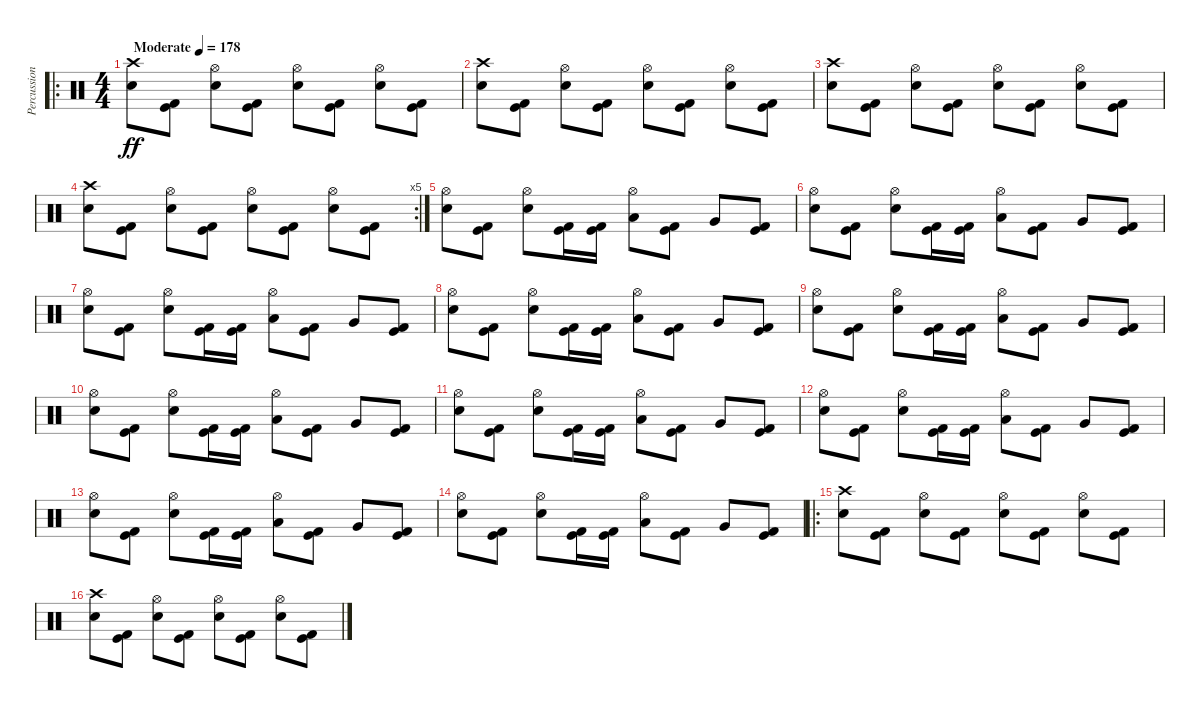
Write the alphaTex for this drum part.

\track ("Percussion" "Percussion") {instrument percussion}
\staff {score}
\articulation defaults
\ro
\ts (4 4)
\tempo (178 "Moderate")
\clef neutral
\ks c
("Electric Snare (hit)" "Crash high (hit)").8{dy ff} ("Kick (hit)" "Kick (hit) 2").8 ("Electric Snare (hit)" "Hi-Hat (open)").8 ("Kick (hit)" "Kick (hit) 2").8 ("Electric Snare (hit)" "Hi-Hat (open)").8 ("Kick (hit)" "Kick (hit) 2").8 ("Electric Snare (hit)" "Hi-Hat (open)").8 ("Kick (hit)" "Kick (hit) 2").8 |
("Electric Snare (hit)" "Crash high (hit)").8 ("Kick (hit)" "Kick (hit) 2").8 ("Electric Snare (hit)" "Hi-Hat (open)").8 ("Kick (hit)" "Kick (hit) 2").8 ("Electric Snare (hit)" "Hi-Hat (open)").8 ("Kick (hit)" "Kick (hit) 2").8 ("Electric Snare (hit)" "Hi-Hat (open)").8 ("Kick (hit)" "Kick (hit) 2").8 |
("Electric Snare (hit)" "Crash high (hit)").8 ("Kick (hit)" "Kick (hit) 2").8 ("Electric Snare (hit)" "Hi-Hat (open)").8 ("Kick (hit)" "Kick (hit) 2").8 ("Electric Snare (hit)" "Hi-Hat (open)").8 ("Kick (hit)" "Kick (hit) 2").8 ("Electric Snare (hit)" "Hi-Hat (open)").8 ("Kick (hit)" "Kick (hit) 2").8 |
\rc 5
("Electric Snare (hit)" "Crash high (hit)").8 ("Kick (hit)" "Kick (hit) 2").8 ("Electric Snare (hit)" "Hi-Hat (open)").8 ("Kick (hit)" "Kick (hit) 2").8 ("Electric Snare (hit)" "Hi-Hat (open)").8 ("Kick (hit)" "Kick (hit) 2").8 ("Electric Snare (hit)" "Hi-Hat (open)").8 ("Kick (hit)" "Kick (hit) 2").8 |
("Electric Snare (hit)" "Hi-Hat (open)").8 ("Kick (hit)" "Kick (hit) 2").8 ("Electric Snare (hit)" "Hi-Hat (open)").8 ("Kick (hit)" "Kick (hit) 2").16 ("Kick (hit)" "Kick (hit) 2").16 ("Low Tom (hit)" "Hi-Hat (open)").8 ("Kick (hit)" "Kick (hit) 2").8 "Very Low Tom (hit)".8 ("Kick (hit)" "Kick (hit) 2").8 |
("Electric Snare (hit)" "Hi-Hat (open)").8 ("Kick (hit)" "Kick (hit) 2").8 ("Electric Snare (hit)" "Hi-Hat (open)").8 ("Kick (hit)" "Kick (hit) 2").16 ("Kick (hit)" "Kick (hit) 2").16 ("Low Tom (hit)" "Hi-Hat (open)").8 ("Kick (hit)" "Kick (hit) 2").8 "Very Low Tom (hit)".8 ("Kick (hit)" "Kick (hit) 2").8 |
("Electric Snare (hit)" "Hi-Hat (open)").8 ("Kick (hit)" "Kick (hit) 2").8 ("Electric Snare (hit)" "Hi-Hat (open)").8 ("Kick (hit)" "Kick (hit) 2").16 ("Kick (hit)" "Kick (hit) 2").16 ("Low Tom (hit)" "Hi-Hat (open)").8 ("Kick (hit)" "Kick (hit) 2").8 "Very Low Tom (hit)".8 ("Kick (hit)" "Kick (hit) 2").8 |
("Electric Snare (hit)" "Hi-Hat (open)").8 ("Kick (hit)" "Kick (hit) 2").8 ("Electric Snare (hit)" "Hi-Hat (open)").8 ("Kick (hit)" "Kick (hit) 2").16 ("Kick (hit)" "Kick (hit) 2").16 ("Low Tom (hit)" "Hi-Hat (open)").8 ("Kick (hit)" "Kick (hit) 2").8 "Very Low Tom (hit)".8 ("Kick (hit)" "Kick (hit) 2").8 |
("Electric Snare (hit)" "Hi-Hat (open)").8 ("Kick (hit)" "Kick (hit) 2").8 ("Electric Snare (hit)" "Hi-Hat (open)").8 ("Kick (hit)" "Kick (hit) 2").16 ("Kick (hit)" "Kick (hit) 2").16 ("Low Tom (hit)" "Hi-Hat (open)").8 ("Kick (hit)" "Kick (hit) 2").8 "Very Low Tom (hit)".8 ("Kick (hit)" "Kick (hit) 2").8 |
("Electric Snare (hit)" "Hi-Hat (open)").8 ("Kick (hit)" "Kick (hit) 2").8 ("Electric Snare (hit)" "Hi-Hat (open)").8 ("Kick (hit)" "Kick (hit) 2").16 ("Kick (hit)" "Kick (hit) 2").16 ("Low Tom (hit)" "Hi-Hat (open)").8 ("Kick (hit)" "Kick (hit) 2").8 "Very Low Tom (hit)".8 ("Kick (hit)" "Kick (hit) 2").8 |
("Electric Snare (hit)" "Hi-Hat (open)").8 ("Kick (hit)" "Kick (hit) 2").8 ("Electric Snare (hit)" "Hi-Hat (open)").8 ("Kick (hit)" "Kick (hit) 2").16 ("Kick (hit)" "Kick (hit) 2").16 ("Low Tom (hit)" "Hi-Hat (open)").8 ("Kick (hit)" "Kick (hit) 2").8 "Very Low Tom (hit)".8 ("Kick (hit)" "Kick (hit) 2").8 |
("Electric Snare (hit)" "Hi-Hat (open)").8 ("Kick (hit)" "Kick (hit) 2").8 ("Electric Snare (hit)" "Hi-Hat (open)").8 ("Kick (hit)" "Kick (hit) 2").16 ("Kick (hit)" "Kick (hit) 2").16 ("Low Tom (hit)" "Hi-Hat (open)").8 ("Kick (hit)" "Kick (hit) 2").8 "Very Low Tom (hit)".8 ("Kick (hit)" "Kick (hit) 2").8 |
("Electric Snare (hit)" "Hi-Hat (open)").8 ("Kick (hit)" "Kick (hit) 2").8 ("Electric Snare (hit)" "Hi-Hat (open)").8 ("Kick (hit)" "Kick (hit) 2").16 ("Kick (hit)" "Kick (hit) 2").16 ("Low Tom (hit)" "Hi-Hat (open)").8 ("Kick (hit)" "Kick (hit) 2").8 "Very Low Tom (hit)".8 ("Kick (hit)" "Kick (hit) 2").8 |
("Electric Snare (hit)" "Hi-Hat (open)").8 ("Kick (hit)" "Kick (hit) 2").8 ("Electric Snare (hit)" "Hi-Hat (open)").8 ("Kick (hit)" "Kick (hit) 2").16 ("Kick (hit)" "Kick (hit) 2").16 ("Low Tom (hit)" "Hi-Hat (open)").8 ("Kick (hit)" "Kick (hit) 2").8 "Very Low Tom (hit)".8 ("Kick (hit)" "Kick (hit) 2").8 |
\ro
("Electric Snare (hit)" "Crash high (hit)").8 ("Kick (hit)" "Kick (hit) 2").8 ("Electric Snare (hit)" "Hi-Hat (open)").8 ("Kick (hit)" "Kick (hit) 2").8 ("Electric Snare (hit)" "Hi-Hat (open)").8 ("Kick (hit)" "Kick (hit) 2").8 ("Electric Snare (hit)" "Hi-Hat (open)").8 ("Kick (hit)" "Kick (hit) 2").8 |
("Electric Snare (hit)" "Crash high (hit)").8 ("Kick (hit)" "Kick (hit) 2").8 ("Electric Snare (hit)" "Hi-Hat (open)").8 ("Kick (hit)" "Kick (hit) 2").8 ("Electric Snare (hit)" "Hi-Hat (open)").8 ("Kick (hit)" "Kick (hit) 2").8 ("Electric Snare (hit)" "Hi-Hat (open)").8 ("Kick (hit)" "Kick (hit) 2").8
